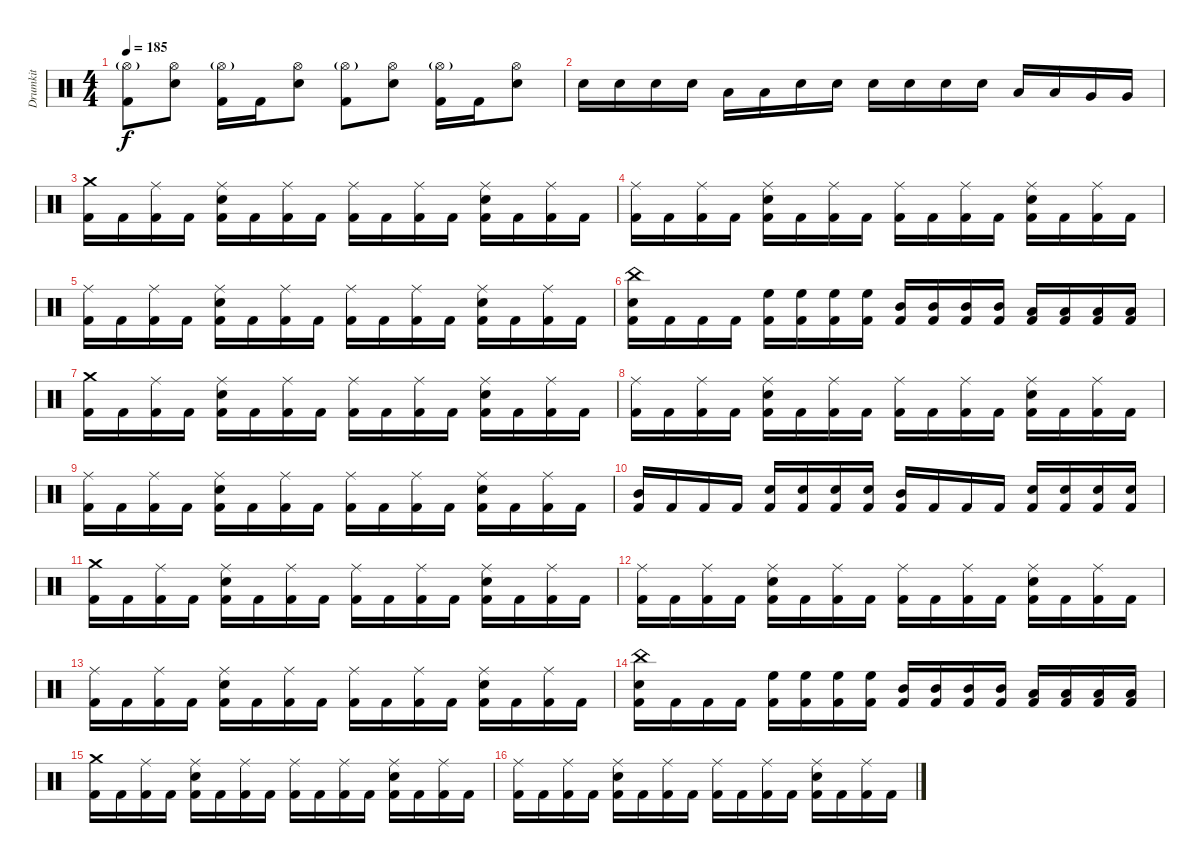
\track ("Drumkit" "Drumkit") {instrument percussion}
\staff {score}
\articulation defaults
\ts (4 4)
\tempo 185
\clef neutral
\ks c
("Hi-Hat (open)"{g} "Kick (hit) 2").8{dy f} ("Hi-Hat (open)" "Snare (hit) 2").8 ("Hi-Hat (open)"{g} "Kick (hit) 2").16 "Kick (hit) 2".16 ("Hi-Hat (open)" "Snare (hit) 2").8 ("Hi-Hat (open)"{g} "Kick (hit) 2").8 ("Hi-Hat (open)" "Snare (hit) 2").8 ("Hi-Hat (open)"{g} "Kick (hit) 2").16 "Kick (hit) 2".16 ("Hi-Hat (open)" "Snare (hit) 2").8 |
"Snare (hit) 2".16 "Snare (hit) 2".16 "Snare (hit) 2".16 "Snare (hit) 2".16 "Low Tom (hit)".16 "Low Tom (hit)".16 "Snare (hit) 2".16 "Snare (hit) 2".16 "Snare (hit) 2".16 "Snare (hit) 2".16 "Snare (hit) 2".16 "Snare (hit) 2".16 "Low Tom (hit)".16 "Low Tom (hit)".16 "Very Low Tom (hit)".16 "Very Low Tom (hit)".16 |
("Crash medium (hit)" "Kick (hit) 2").16 "Kick (hit) 2".16 ("Ride (middle)" "Kick (hit) 2").16 "Kick (hit) 2".16 ("Ride (middle)" "Snare (hit) 2" "Kick (hit) 2").16 "Kick (hit) 2".16 ("Ride (middle)" "Kick (hit) 2").16 "Kick (hit) 2".16 ("Ride (middle)" "Kick (hit) 2").16 "Kick (hit) 2".16 ("Ride (middle)" "Kick (hit) 2").16 "Kick (hit) 2".16 ("Ride (middle)" "Snare (hit) 2" "Kick (hit) 2").16 "Kick (hit) 2".16 ("Ride (middle)" "Kick (hit) 2").16 "Kick (hit) 2".16 |
("Ride (middle)" "Kick (hit) 2").16 "Kick (hit) 2".16 ("Ride (middle)" "Kick (hit) 2").16 "Kick (hit) 2".16 ("Ride (middle)" "Snare (hit) 2" "Kick (hit) 2").16 "Kick (hit) 2".16 ("Ride (middle)" "Kick (hit) 2").16 "Kick (hit) 2".16 ("Ride (middle)" "Kick (hit) 2").16 "Kick (hit) 2".16 ("Ride (middle)" "Kick (hit) 2").16 "Kick (hit) 2".16 ("Ride (middle)" "Snare (hit) 2" "Kick (hit) 2").16 "Kick (hit) 2".16 ("Ride (middle)" "Kick (hit) 2").16 "Kick (hit) 2".16 |
("Ride (middle)" "Kick (hit) 2").16 "Kick (hit) 2".16 ("Ride (middle)" "Kick (hit) 2").16 "Kick (hit) 2".16 ("Ride (middle)" "Snare (hit) 2" "Kick (hit) 2").16 "Kick (hit) 2".16 ("Ride (middle)" "Kick (hit) 2").16 "Kick (hit) 2".16 ("Ride (middle)" "Kick (hit) 2").16 "Kick (hit) 2".16 ("Ride (middle)" "Kick (hit) 2").16 "Kick (hit) 2".16 ("Ride (middle)" "Snare (hit) 2" "Kick (hit) 2").16 "Kick (hit) 2".16 ("Ride (middle)" "Kick (hit) 2").16 "Kick (hit) 2".16 |
("China (hit)" "Snare (hit) 2" "Kick (hit) 2").16 "Kick (hit) 2".16 "Kick (hit) 2".16 "Kick (hit) 2".16 ("High Floor Tom (hit)" "Kick (hit) 2").16 ("High Floor Tom (hit)" "Kick (hit) 2").16 ("High Floor Tom (hit)" "Kick (hit) 2").16 ("High Floor Tom (hit)" "Kick (hit) 2").16 ("Mid Tom (hit)" "Kick (hit) 2").16 ("Mid Tom (hit)" "Kick (hit) 2").16 ("Mid Tom (hit)" "Kick (hit) 2").16 ("Mid Tom (hit)" "Kick (hit) 2").16 ("Low Tom (hit)" "Kick (hit) 2").16 ("Low Tom (hit)" "Kick (hit) 2").16 ("Low Tom (hit)" "Kick (hit) 2").16 ("Low Tom (hit)" "Kick (hit) 2").16 |
("Crash medium (hit)" "Kick (hit) 2").16 "Kick (hit) 2".16 ("Ride (middle)" "Kick (hit) 2").16 "Kick (hit) 2".16 ("Ride (middle)" "Snare (hit) 2" "Kick (hit) 2").16 "Kick (hit) 2".16 ("Ride (middle)" "Kick (hit) 2").16 "Kick (hit) 2".16 ("Ride (middle)" "Kick (hit) 2").16 "Kick (hit) 2".16 ("Ride (middle)" "Kick (hit) 2").16 "Kick (hit) 2".16 ("Ride (middle)" "Snare (hit) 2" "Kick (hit) 2").16 "Kick (hit) 2".16 ("Ride (middle)" "Kick (hit) 2").16 "Kick (hit) 2".16 |
("Ride (middle)" "Kick (hit) 2").16 "Kick (hit) 2".16 ("Ride (middle)" "Kick (hit) 2").16 "Kick (hit) 2".16 ("Ride (middle)" "Snare (hit) 2" "Kick (hit) 2").16 "Kick (hit) 2".16 ("Ride (middle)" "Kick (hit) 2").16 "Kick (hit) 2".16 ("Ride (middle)" "Kick (hit) 2").16 "Kick (hit) 2".16 ("Ride (middle)" "Kick (hit) 2").16 "Kick (hit) 2".16 ("Ride (middle)" "Snare (hit) 2" "Kick (hit) 2").16 "Kick (hit) 2".16 ("Ride (middle)" "Kick (hit) 2").16 "Kick (hit) 2".16 |
("Ride (middle)" "Kick (hit) 2").16 "Kick (hit) 2".16 ("Ride (middle)" "Kick (hit) 2").16 "Kick (hit) 2".16 ("Ride (middle)" "Snare (hit) 2" "Kick (hit) 2").16 "Kick (hit) 2".16 ("Ride (middle)" "Kick (hit) 2").16 "Kick (hit) 2".16 ("Ride (middle)" "Kick (hit) 2").16 "Kick (hit) 2".16 ("Ride (middle)" "Kick (hit) 2").16 "Kick (hit) 2".16 ("Ride (middle)" "Snare (hit) 2" "Kick (hit) 2").16 "Kick (hit) 2".16 ("Ride (middle)" "Kick (hit) 2").16 "Kick (hit) 2".16 |
("Mid Tom (hit)" "Kick (hit) 2").16 "Kick (hit) 2".16 "Kick (hit) 2".16 "Kick (hit) 2".16 ("Snare (hit) 2" "Kick (hit) 2").16 ("Snare (hit) 2" "Kick (hit) 2").16 ("Snare (hit) 2" "Kick (hit) 2").16 ("Snare (hit) 2" "Kick (hit) 2").16 ("Mid Tom (hit)" "Kick (hit) 2").16 "Kick (hit) 2".16 "Kick (hit) 2".16 "Kick (hit) 2".16 ("Snare (hit) 2" "Kick (hit) 2").16 ("Snare (hit) 2" "Kick (hit) 2").16 ("Snare (hit) 2" "Kick (hit) 2").16 ("Snare (hit) 2" "Kick (hit) 2").16 |
("Crash medium (hit)" "Kick (hit) 2").16 "Kick (hit) 2".16 ("Ride (middle)" "Kick (hit) 2").16 "Kick (hit) 2".16 ("Ride (middle)" "Snare (hit) 2" "Kick (hit) 2").16 "Kick (hit) 2".16 ("Ride (middle)" "Kick (hit) 2").16 "Kick (hit) 2".16 ("Ride (middle)" "Kick (hit) 2").16 "Kick (hit) 2".16 ("Ride (middle)" "Kick (hit) 2").16 "Kick (hit) 2".16 ("Ride (middle)" "Snare (hit) 2" "Kick (hit) 2").16 "Kick (hit) 2".16 ("Ride (middle)" "Kick (hit) 2").16 "Kick (hit) 2".16 |
("Ride (middle)" "Kick (hit) 2").16 "Kick (hit) 2".16 ("Ride (middle)" "Kick (hit) 2").16 "Kick (hit) 2".16 ("Ride (middle)" "Snare (hit) 2" "Kick (hit) 2").16 "Kick (hit) 2".16 ("Ride (middle)" "Kick (hit) 2").16 "Kick (hit) 2".16 ("Ride (middle)" "Kick (hit) 2").16 "Kick (hit) 2".16 ("Ride (middle)" "Kick (hit) 2").16 "Kick (hit) 2".16 ("Ride (middle)" "Snare (hit) 2" "Kick (hit) 2").16 "Kick (hit) 2".16 ("Ride (middle)" "Kick (hit) 2").16 "Kick (hit) 2".16 |
("Ride (middle)" "Kick (hit) 2").16 "Kick (hit) 2".16 ("Ride (middle)" "Kick (hit) 2").16 "Kick (hit) 2".16 ("Ride (middle)" "Snare (hit) 2" "Kick (hit) 2").16 "Kick (hit) 2".16 ("Ride (middle)" "Kick (hit) 2").16 "Kick (hit) 2".16 ("Ride (middle)" "Kick (hit) 2").16 "Kick (hit) 2".16 ("Ride (middle)" "Kick (hit) 2").16 "Kick (hit) 2".16 ("Ride (middle)" "Snare (hit) 2" "Kick (hit) 2").16 "Kick (hit) 2".16 ("Ride (middle)" "Kick (hit) 2").16 "Kick (hit) 2".16 |
("China (hit)" "Snare (hit) 2" "Kick (hit) 2").16 "Kick (hit) 2".16 "Kick (hit) 2".16 "Kick (hit) 2".16 ("High Floor Tom (hit)" "Kick (hit) 2").16 ("High Floor Tom (hit)" "Kick (hit) 2").16 ("High Floor Tom (hit)" "Kick (hit) 2").16 ("High Floor Tom (hit)" "Kick (hit) 2").16 ("Mid Tom (hit)" "Kick (hit) 2").16 ("Mid Tom (hit)" "Kick (hit) 2").16 ("Mid Tom (hit)" "Kick (hit) 2").16 ("Mid Tom (hit)" "Kick (hit) 2").16 ("Low Tom (hit)" "Kick (hit) 2").16 ("Low Tom (hit)" "Kick (hit) 2").16 ("Low Tom (hit)" "Kick (hit) 2").16 ("Low Tom (hit)" "Kick (hit) 2").16 |
("Crash medium (hit)" "Kick (hit) 2").16 "Kick (hit) 2".16 ("Ride (middle)" "Kick (hit) 2").16 "Kick (hit) 2".16 ("Ride (middle)" "Snare (hit) 2" "Kick (hit) 2").16 "Kick (hit) 2".16 ("Ride (middle)" "Kick (hit) 2").16 "Kick (hit) 2".16 ("Ride (middle)" "Kick (hit) 2").16 "Kick (hit) 2".16 ("Ride (middle)" "Kick (hit) 2").16 "Kick (hit) 2".16 ("Ride (middle)" "Snare (hit) 2" "Kick (hit) 2").16 "Kick (hit) 2".16 ("Ride (middle)" "Kick (hit) 2").16 "Kick (hit) 2".16 |
("Ride (middle)" "Kick (hit) 2").16 "Kick (hit) 2".16 ("Ride (middle)" "Kick (hit) 2").16 "Kick (hit) 2".16 ("Ride (middle)" "Snare (hit) 2" "Kick (hit) 2").16 "Kick (hit) 2".16 ("Ride (middle)" "Kick (hit) 2").16 "Kick (hit) 2".16 ("Ride (middle)" "Kick (hit) 2").16 "Kick (hit) 2".16 ("Ride (middle)" "Kick (hit) 2").16 "Kick (hit) 2".16 ("Ride (middle)" "Snare (hit) 2" "Kick (hit) 2").16 "Kick (hit) 2".16 ("Ride (middle)" "Kick (hit) 2").16 "Kick (hit) 2".16
